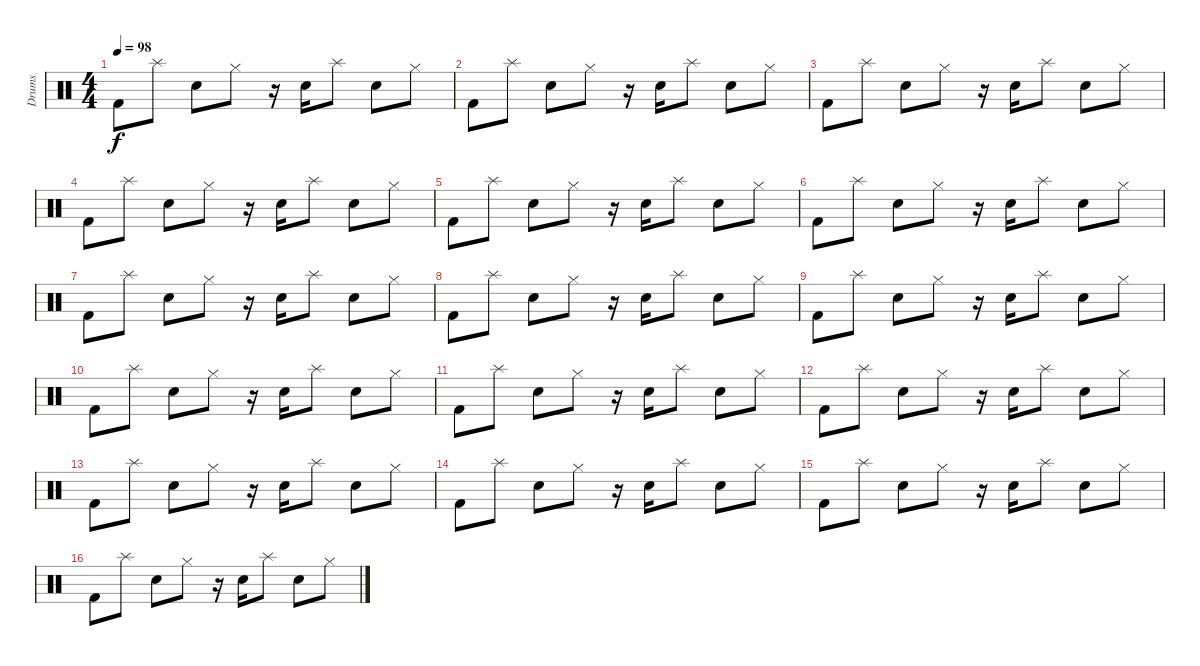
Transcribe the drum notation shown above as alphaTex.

\track ("Drums" "Drums") {instrument percussion}
\staff {score}
\articulation defaults
\ts (4 4)
\tempo 98
\clef neutral
\ks c "Kick (hit) 2".8{dy f} "Splash (hit)".8 "Snare (hit) 2".8 "Hi-Hat (closed)".8
r.16 "Snare (hit) 2".16 "Splash (hit)".8 "Snare (hit) 2".8 "Hi-Hat (closed)".8 |
"Kick (hit) 2".8 "Splash (hit)".8 "Snare (hit) 2".8 "Hi-Hat (closed)".8 r.16 "Snare (hit) 2".16 "Splash (hit)".8 "Snare (hit) 2".8 "Hi-Hat (closed)".8 |
"Kick (hit) 2".8 "Splash (hit)".8 "Snare (hit) 2".8 "Hi-Hat (closed)".8 r.16 "Snare (hit) 2".16 "Splash (hit)".8 "Snare (hit) 2".8 "Hi-Hat (closed)".8 |
"Kick (hit) 2".8 "Splash (hit)".8 "Snare (hit) 2".8 "Hi-Hat (closed)".8 r.16 "Snare (hit) 2".16 "Splash (hit)".8 "Snare (hit) 2".8 "Hi-Hat (closed)".8 |
"Kick (hit) 2".8 "Splash (hit)".8 "Snare (hit) 2".8 "Hi-Hat (closed)".8 r.16 "Snare (hit) 2".16 "Splash (hit)".8 "Snare (hit) 2".8 "Hi-Hat (closed)".8 |
"Kick (hit) 2".8 "Splash (hit)".8 "Snare (hit) 2".8 "Hi-Hat (closed)".8 r.16 "Snare (hit) 2".16 "Splash (hit)".8 "Snare (hit) 2".8 "Hi-Hat (closed)".8 |
"Kick (hit) 2".8 "Splash (hit)".8 "Snare (hit) 2".8 "Hi-Hat (closed)".8 r.16 "Snare (hit) 2".16 "Splash (hit)".8 "Snare (hit) 2".8 "Hi-Hat (closed)".8 |
"Kick (hit) 2".8 "Splash (hit)".8 "Snare (hit) 2".8 "Hi-Hat (closed)".8 r.16 "Snare (hit) 2".16 "Splash (hit)".8 "Snare (hit) 2".8 "Hi-Hat (closed)".8 |
"Kick (hit) 2".8 "Splash (hit)".8 "Snare (hit) 2".8 "Hi-Hat (closed)".8 r.16 "Snare (hit) 2".16 "Splash (hit)".8 "Snare (hit) 2".8 "Hi-Hat (closed)".8 |
"Kick (hit) 2".8 "Splash (hit)".8 "Snare (hit) 2".8 "Hi-Hat (closed)".8 r.16 "Snare (hit) 2".16 "Splash (hit)".8 "Snare (hit) 2".8 "Hi-Hat (closed)".8 |
"Kick (hit) 2".8 "Splash (hit)".8 "Snare (hit) 2".8 "Hi-Hat (closed)".8 r.16 "Snare (hit) 2".16 "Splash (hit)".8 "Snare (hit) 2".8 "Hi-Hat (closed)".8 |
"Kick (hit) 2".8 "Splash (hit)".8 "Snare (hit) 2".8 "Hi-Hat (closed)".8 r.16 "Snare (hit) 2".16 "Splash (hit)".8 "Snare (hit) 2".8 "Hi-Hat (closed)".8 |
"Kick (hit) 2".8 "Splash (hit)".8 "Snare (hit) 2".8 "Hi-Hat (closed)".8 r.16 "Snare (hit) 2".16 "Splash (hit)".8 "Snare (hit) 2".8 "Hi-Hat (closed)".8 |
"Kick (hit) 2".8 "Splash (hit)".8 "Snare (hit) 2".8 "Hi-Hat (closed)".8 r.16 "Snare (hit) 2".16 "Splash (hit)".8 "Snare (hit) 2".8 "Hi-Hat (closed)".8 |
"Kick (hit) 2".8 "Splash (hit)".8 "Snare (hit) 2".8 "Hi-Hat (closed)".8 r.16 "Snare (hit) 2".16 "Splash (hit)".8 "Snare (hit) 2".8 "Hi-Hat (closed)".8 |
"Kick (hit) 2".8 "Splash (hit)".8 "Snare (hit) 2".8 "Hi-Hat (closed)".8 r.16 "Snare (hit) 2".16 "Splash (hit)".8 "Snare (hit) 2".8 "Hi-Hat (closed)".8
